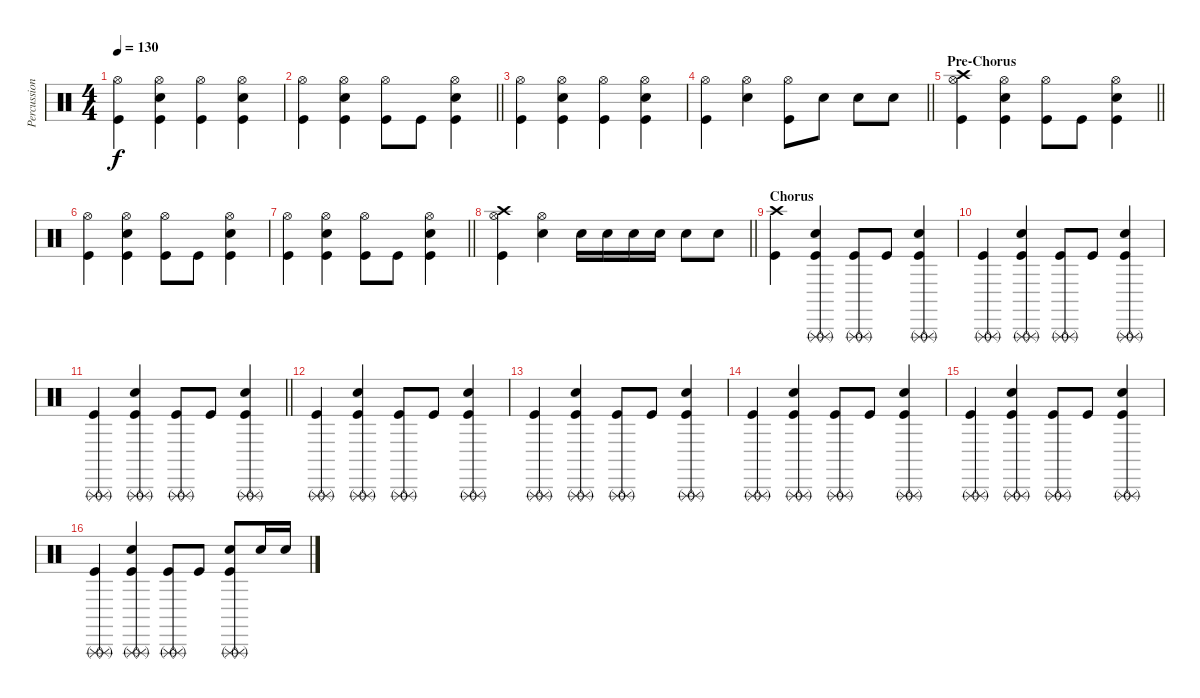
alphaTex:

\track ("Percussion" "Percussion") {instrument percussion}
\staff {score}
\articulation defaults
\ts (4 4)
\tempo 130
\clef neutral
\ks c
("Hi-Hat (open)" "Kick (hit)").4{dy f} ("Hi-Hat (open)" "Snare (hit) 2" "Kick (hit)").4 ("Hi-Hat (open)" "Kick (hit)").4 ("Hi-Hat (open)" "Snare (hit) 2" "Kick (hit)").4 |
\barLineRight lightlight
("Hi-Hat (open)" "Kick (hit)").4 ("Hi-Hat (open)" "Snare (hit) 2" "Kick (hit)").4 ("Hi-Hat (open)" "Kick (hit)").8 "Kick (hit)".8 ("Hi-Hat (open)" "Snare (hit) 2" "Kick (hit)").4 |
\section ("" "")
("Hi-Hat (open)" "Kick (hit)").4 ("Hi-Hat (open)" "Snare (hit) 2" "Kick (hit)").4 ("Hi-Hat (open)" "Kick (hit)").4 ("Hi-Hat (open)" "Snare (hit) 2" "Kick (hit)").4 |
\barLineRight lightlight
("Hi-Hat (open)" "Kick (hit)").4 ("Hi-Hat (open)" "Snare (hit) 2").4 ("Hi-Hat (open)" "Kick (hit)").8 "Snare (hit) 2".8 "Snare (hit) 2".8 "Snare (hit) 2".8 |
\section ("" "Pre-Chorus")
\barLineRight lightlight
("Crash high (hit)" "Hi-Hat (open)" "Kick (hit)").4 ("Hi-Hat (open)" "Snare (hit) 2" "Kick (hit)").4 ("Hi-Hat (open)" "Kick (hit)").8 "Kick (hit)".8 ("Hi-Hat (open)" "Snare (hit) 2" "Kick (hit)").4 |
("Hi-Hat (open)" "Kick (hit)").4 ("Hi-Hat (open)" "Snare (hit) 2" "Kick (hit)").4 ("Hi-Hat (open)" "Kick (hit)").8 "Kick (hit)".8 ("Hi-Hat (open)" "Snare (hit) 2" "Kick (hit)").4 |
\barLineRight lightlight
("Hi-Hat (open)" "Kick (hit)").4 ("Hi-Hat (open)" "Snare (hit) 2" "Kick (hit)").4 ("Hi-Hat (open)" "Kick (hit)").8 "Kick (hit)".8 ("Hi-Hat (open)" "Snare (hit) 2" "Kick (hit)").4 |
\barLineRight lightlight
("Crash high (hit)" "Hi-Hat (open)" "Kick (hit)").4 ("Hi-Hat (open)" "Snare (hit) 2").4 "Snare (hit) 2".16 "Snare (hit) 2".16 "Snare (hit) 2".16 "Snare (hit) 2".16 "Snare (hit) 2".8 "Snare (hit) 2".8 |
\section ("" "Chorus")
("Crash high (hit)" "Kick (hit)").4 ("Triangle (rnute)" "Triangle (rnute)" "Snare (hit) 2" "Kick (hit)").4 ("Triangle (rnute)" "Triangle (rnute)" "Kick (hit)").8 "Kick (hit)".8 ("Triangle (rnute)" "Triangle (rnute)" "Snare (hit) 2" "Kick (hit)").4 |
("Triangle (rnute)" "Triangle (rnute)" "Kick (hit)").4 ("Triangle (rnute)" "Triangle (rnute)" "Snare (hit) 2" "Kick (hit)").4 ("Triangle (rnute)" "Triangle (rnute)" "Kick (hit)").8 "Kick (hit)".8 ("Triangle (rnute)" "Triangle (rnute)" "Snare (hit) 2" "Kick (hit)").4 |
\barLineRight lightlight
("Triangle (rnute)" "Triangle (rnute)" "Kick (hit)").4 ("Triangle (rnute)" "Triangle (rnute)" "Snare (hit) 2" "Kick (hit)").4 ("Triangle (rnute)" "Triangle (rnute)" "Kick (hit)").8 "Kick (hit)".8 ("Triangle (rnute)" "Triangle (rnute)" "Snare (hit) 2" "Kick (hit)").4 |
\section ("" "")
("Triangle (rnute)" "Triangle (rnute)" "Kick (hit)").4 ("Triangle (rnute)" "Triangle (rnute)" "Snare (hit) 2" "Kick (hit)").4 ("Triangle (rnute)" "Triangle (rnute)" "Kick (hit)").8 "Kick (hit)".8 ("Triangle (rnute)" "Triangle (rnute)" "Snare (hit) 2" "Kick (hit)").4 |
("Triangle (rnute)" "Triangle (rnute)" "Kick (hit)").4 ("Triangle (rnute)" "Triangle (rnute)" "Snare (hit) 2" "Kick (hit)").4 ("Triangle (rnute)" "Triangle (rnute)" "Kick (hit)").8 "Kick (hit)".8 ("Triangle (rnute)" "Triangle (rnute)" "Snare (hit) 2" "Kick (hit)").4 |
("Triangle (rnute)" "Triangle (rnute)" "Kick (hit)").4 ("Triangle (rnute)" "Triangle (rnute)" "Snare (hit) 2" "Kick (hit)").4 ("Triangle (rnute)" "Triangle (rnute)" "Kick (hit)").8 "Kick (hit)".8 ("Triangle (rnute)" "Triangle (rnute)" "Snare (hit) 2" "Kick (hit)").4 |
("Triangle (rnute)" "Triangle (rnute)" "Kick (hit)").4 ("Triangle (rnute)" "Triangle (rnute)" "Snare (hit) 2" "Kick (hit)").4 ("Triangle (rnute)" "Triangle (rnute)" "Kick (hit)").8 "Kick (hit)".8 ("Triangle (rnute)" "Triangle (rnute)" "Snare (hit) 2" "Kick (hit)").4 |
("Triangle (rnute)" "Triangle (rnute)" "Kick (hit)").4 ("Triangle (rnute)" "Triangle (rnute)" "Snare (hit) 2" "Kick (hit)").4 ("Triangle (rnute)" "Triangle (rnute)" "Kick (hit)").8 "Kick (hit)".8 ("Triangle (rnute)" "Triangle (rnute)" "Snare (hit) 2" "Kick (hit)").8 "Snare (hit) 2".16 "Snare (hit) 2".16
